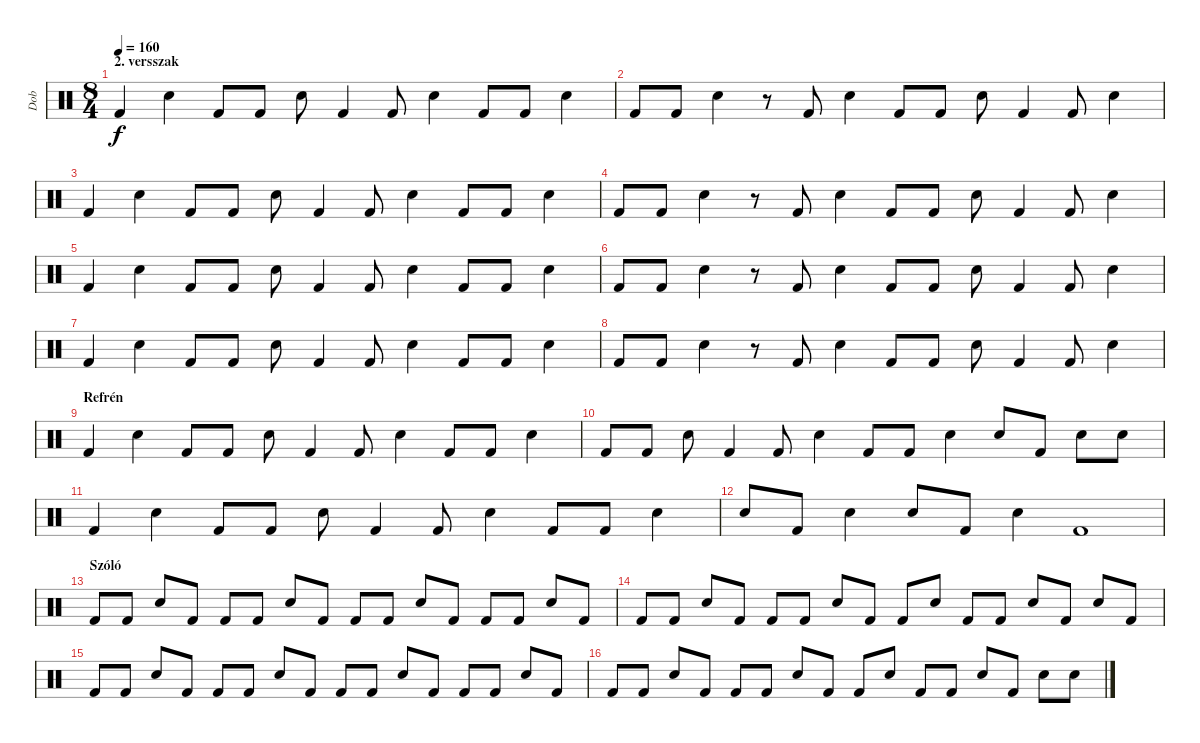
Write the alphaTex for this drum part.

\track ("Dob" "Dob") {instrument percussion}
\staff {score}
\articulation defaults
\ts (8 4)
\section ("" "2. versszak")
\tempo 160
\clef neutral
\ks c "Kick (hit) 2".4{dy f} "Snare (hit) 2".4 "Kick (hit) 2".8 "Kick (hit) 2".8 "Snare (hit) 2".8 "Kick (hit) 2".4 "Kick (hit) 2".8 "Snare (hit) 2".4 "Kick (hit) 2".8 "Kick (hit) 2".8 "Snare (hit) 2".4
|
"Kick (hit) 2".8 "Kick (hit) 2".8 "Snare (hit) 2".4 r.8 "Kick (hit) 2".8 "Snare (hit) 2".4 "Kick (hit) 2".8 "Kick (hit) 2".8 "Snare (hit) 2".8 "Kick (hit) 2".4 "Kick (hit) 2".8 "Snare (hit) 2".4 |
"Kick (hit) 2".4 "Snare (hit) 2".4 "Kick (hit) 2".8 "Kick (hit) 2".8 "Snare (hit) 2".8 "Kick (hit) 2".4 "Kick (hit) 2".8 "Snare (hit) 2".4 "Kick (hit) 2".8 "Kick (hit) 2".8 "Snare (hit) 2".4 |
"Kick (hit) 2".8 "Kick (hit) 2".8 "Snare (hit) 2".4 r.8 "Kick (hit) 2".8 "Snare (hit) 2".4 "Kick (hit) 2".8 "Kick (hit) 2".8 "Snare (hit) 2".8 "Kick (hit) 2".4 "Kick (hit) 2".8 "Snare (hit) 2".4 |
"Kick (hit) 2".4 "Snare (hit) 2".4 "Kick (hit) 2".8 "Kick (hit) 2".8 "Snare (hit) 2".8 "Kick (hit) 2".4 "Kick (hit) 2".8 "Snare (hit) 2".4 "Kick (hit) 2".8 "Kick (hit) 2".8 "Snare (hit) 2".4 |
"Kick (hit) 2".8 "Kick (hit) 2".8 "Snare (hit) 2".4 r.8 "Kick (hit) 2".8 "Snare (hit) 2".4 "Kick (hit) 2".8 "Kick (hit) 2".8 "Snare (hit) 2".8 "Kick (hit) 2".4 "Kick (hit) 2".8 "Snare (hit) 2".4 |
"Kick (hit) 2".4 "Snare (hit) 2".4 "Kick (hit) 2".8 "Kick (hit) 2".8 "Snare (hit) 2".8 "Kick (hit) 2".4 "Kick (hit) 2".8 "Snare (hit) 2".4 "Kick (hit) 2".8 "Kick (hit) 2".8 "Snare (hit) 2".4 |
"Kick (hit) 2".8 "Kick (hit) 2".8 "Snare (hit) 2".4 r.8 "Kick (hit) 2".8 "Snare (hit) 2".4 "Kick (hit) 2".8 "Kick (hit) 2".8 "Snare (hit) 2".8 "Kick (hit) 2".4 "Kick (hit) 2".8 "Snare (hit) 2".4 |
\section ("" "Refrén")
"Kick (hit) 2".4 "Snare (hit) 2".4 "Kick (hit) 2".8 "Kick (hit) 2".8 "Snare (hit) 2".8 "Kick (hit) 2".4 "Kick (hit) 2".8 "Snare (hit) 2".4 "Kick (hit) 2".8 "Kick (hit) 2".8 "Snare (hit) 2".4 |
"Kick (hit) 2".8 "Kick (hit) 2".8 "Snare (hit) 2".8 "Kick (hit) 2".4 "Kick (hit) 2".8 "Snare (hit) 2".4 "Kick (hit) 2".8 "Kick (hit) 2".8 "Snare (hit) 2".4 "Snare (hit) 2".8 "Kick (hit) 2".8 "Snare (hit) 2".8 "Snare (hit) 2".8 |
"Kick (hit) 2".4 "Snare (hit) 2".4 "Kick (hit) 2".8 "Kick (hit) 2".8 "Snare (hit) 2".8 "Kick (hit) 2".4 "Kick (hit) 2".8 "Snare (hit) 2".4 "Kick (hit) 2".8 "Kick (hit) 2".8 "Snare (hit) 2".4 |
"Snare (hit) 2".8 "Kick (hit) 2".8 "Snare (hit) 2".4 "Snare (hit) 2".8 "Kick (hit) 2".8 "Snare (hit) 2".4 "Kick (hit) 2".1 |
\section ("" "Szóló")
"Kick (hit) 2".8 "Kick (hit) 2".8 "Snare (hit) 2".8 "Kick (hit) 2".8 "Kick (hit) 2".8 "Kick (hit) 2".8 "Snare (hit) 2".8 "Kick (hit) 2".8 "Kick (hit) 2".8 "Kick (hit) 2".8 "Snare (hit) 2".8 "Kick (hit) 2".8 "Kick (hit) 2".8 "Kick (hit) 2".8 "Snare (hit) 2".8 "Kick (hit) 2".8 |
"Kick (hit) 2".8 "Kick (hit) 2".8 "Snare (hit) 2".8 "Kick (hit) 2".8 "Kick (hit) 2".8 "Kick (hit) 2".8 "Snare (hit) 2".8 "Kick (hit) 2".8 "Kick (hit) 2".8 "Snare (hit) 2".8 "Kick (hit) 2".8 "Kick (hit) 2".8 "Snare (hit) 2".8 "Kick (hit) 2".8 "Snare (hit) 2".8 "Kick (hit) 2".8 |
"Kick (hit) 2".8 "Kick (hit) 2".8 "Snare (hit) 2".8 "Kick (hit) 2".8 "Kick (hit) 2".8 "Kick (hit) 2".8 "Snare (hit) 2".8 "Kick (hit) 2".8 "Kick (hit) 2".8 "Kick (hit) 2".8 "Snare (hit) 2".8 "Kick (hit) 2".8 "Kick (hit) 2".8 "Kick (hit) 2".8 "Snare (hit) 2".8 "Kick (hit) 2".8 |
"Kick (hit) 2".8 "Kick (hit) 2".8 "Snare (hit) 2".8 "Kick (hit) 2".8 "Kick (hit) 2".8 "Kick (hit) 2".8 "Snare (hit) 2".8 "Kick (hit) 2".8 "Kick (hit) 2".8 "Snare (hit) 2".8 "Kick (hit) 2".8 "Kick (hit) 2".8 "Snare (hit) 2".8 "Kick (hit) 2".8 "Snare (hit) 2".8 "Snare (hit) 2".8
